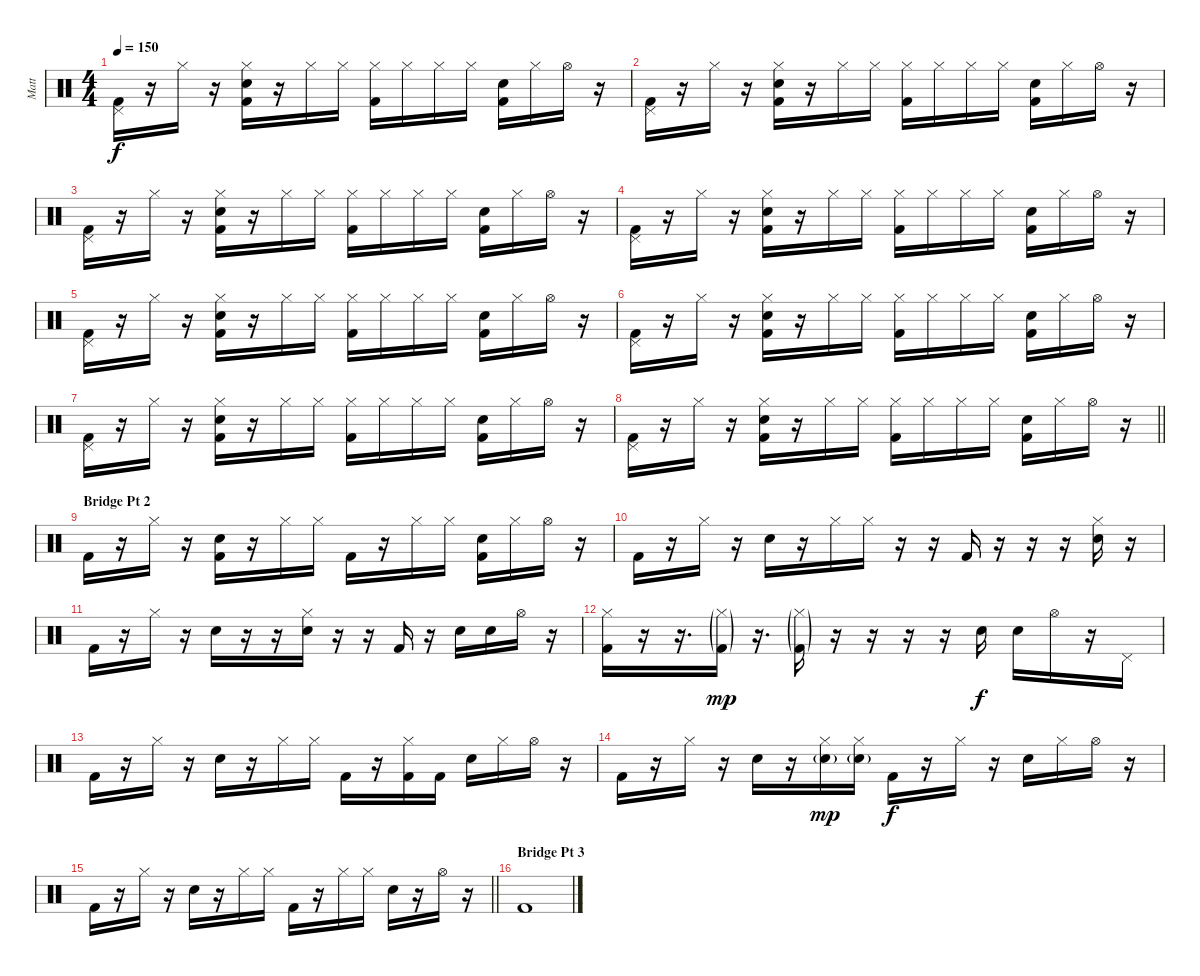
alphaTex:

\track ("Matt" "Matt") {instrument percussion}
\staff {score}
\articulation defaults
\ts (4 4)
\tempo 150
\clef neutral
\ks c
("Pedal Hi-Hat (hit)" "Kick (hit) 2").16{dy f} r.16 "Hi-Hat (closed)".16 r.16 ("Hi-Hat (closed)" "Snare (hit) 2" "Kick (hit) 2").16 r.16 "Hi-Hat (closed)".16 "Hi-Hat (closed)".16 ("Hi-Hat (closed)" "Kick (hit) 2").16 "Hi-Hat (closed)".16 "Hi-Hat (closed)".16 "Hi-Hat (closed)".16 ("Snare (hit) 2" "Kick (hit) 2").16 "Hi-Hat (closed)".16 "Hi-Hat (open)".16 r.16 |
("Pedal Hi-Hat (hit)" "Kick (hit) 2").16 r.16 "Hi-Hat (closed)".16 r.16 ("Hi-Hat (closed)" "Snare (hit) 2" "Kick (hit) 2").16 r.16 "Hi-Hat (closed)".16 "Hi-Hat (closed)".16 ("Hi-Hat (closed)" "Kick (hit) 2").16 "Hi-Hat (closed)".16 "Hi-Hat (closed)".16 "Hi-Hat (closed)".16 ("Snare (hit) 2" "Kick (hit) 2").16 "Hi-Hat (closed)".16 "Hi-Hat (open)".16 r.16 |
("Pedal Hi-Hat (hit)" "Kick (hit) 2").16 r.16 "Hi-Hat (closed)".16 r.16 ("Hi-Hat (closed)" "Snare (hit) 2" "Kick (hit) 2").16 r.16 "Hi-Hat (closed)".16 "Hi-Hat (closed)".16 ("Hi-Hat (closed)" "Kick (hit) 2").16 "Hi-Hat (closed)".16 "Hi-Hat (closed)".16 "Hi-Hat (closed)".16 ("Snare (hit) 2" "Kick (hit) 2").16 "Hi-Hat (closed)".16 "Hi-Hat (open)".16 r.16 |
("Pedal Hi-Hat (hit)" "Kick (hit) 2").16 r.16 "Hi-Hat (closed)".16 r.16 ("Hi-Hat (closed)" "Snare (hit) 2" "Kick (hit) 2").16 r.16 "Hi-Hat (closed)".16 "Hi-Hat (closed)".16 ("Hi-Hat (closed)" "Kick (hit) 2").16 "Hi-Hat (closed)".16 "Hi-Hat (closed)".16 "Hi-Hat (closed)".16 ("Snare (hit) 2" "Kick (hit) 2").16 "Hi-Hat (closed)".16 "Hi-Hat (open)".16 r.16 |
("Pedal Hi-Hat (hit)" "Kick (hit) 2").16 r.16 "Hi-Hat (closed)".16 r.16 ("Hi-Hat (closed)" "Snare (hit) 2" "Kick (hit) 2").16 r.16 "Hi-Hat (closed)".16 "Hi-Hat (closed)".16 ("Hi-Hat (closed)" "Kick (hit) 2").16 "Hi-Hat (closed)".16 "Hi-Hat (closed)".16 "Hi-Hat (closed)".16 ("Snare (hit) 2" "Kick (hit) 2").16 "Hi-Hat (closed)".16 "Hi-Hat (open)".16 r.16 |
("Pedal Hi-Hat (hit)" "Kick (hit) 2").16 r.16 "Hi-Hat (closed)".16 r.16 ("Hi-Hat (closed)" "Snare (hit) 2" "Kick (hit) 2").16 r.16 "Hi-Hat (closed)".16 "Hi-Hat (closed)".16 ("Hi-Hat (closed)" "Kick (hit) 2").16 "Hi-Hat (closed)".16 "Hi-Hat (closed)".16 "Hi-Hat (closed)".16 ("Snare (hit) 2" "Kick (hit) 2").16 "Hi-Hat (closed)".16 "Hi-Hat (open)".16 r.16 |
("Pedal Hi-Hat (hit)" "Kick (hit) 2").16 r.16 "Hi-Hat (closed)".16 r.16 ("Hi-Hat (closed)" "Snare (hit) 2" "Kick (hit) 2").16 r.16 "Hi-Hat (closed)".16 "Hi-Hat (closed)".16 ("Hi-Hat (closed)" "Kick (hit) 2").16 "Hi-Hat (closed)".16 "Hi-Hat (closed)".16 "Hi-Hat (closed)".16 ("Snare (hit) 2" "Kick (hit) 2").16 "Hi-Hat (closed)".16 "Hi-Hat (open)".16 r.16 |
\barLineRight lightlight
("Pedal Hi-Hat (hit)" "Kick (hit) 2").16 r.16 "Hi-Hat (closed)".16 r.16 ("Hi-Hat (closed)" "Snare (hit) 2" "Kick (hit) 2").16 r.16 "Hi-Hat (closed)".16 "Hi-Hat (closed)".16 ("Hi-Hat (closed)" "Kick (hit) 2").16 "Hi-Hat (closed)".16 "Hi-Hat (closed)".16 "Hi-Hat (closed)".16 ("Snare (hit) 2" "Kick (hit) 2").16 "Hi-Hat (closed)".16 "Hi-Hat (open)".16 r.16 |
\section ("" "Bridge Pt 2")
"Kick (hit) 2".16 r.16 "Hi-Hat (closed)".16 r.16 ("Snare (hit) 2" "Kick (hit) 2").16 r.16 "Hi-Hat (closed)".16 "Hi-Hat (closed)".16 "Kick (hit) 2".16 r.16 "Hi-Hat (closed)".16 "Hi-Hat (closed)".16 ("Snare (hit) 2" "Kick (hit) 2").16 "Hi-Hat (closed)".16 "Hi-Hat (open)".16 r.16 |
"Kick (hit) 2".16 r.16 "Hi-Hat (closed)".16 r.16 "Snare (hit) 2".16 r.16 "Hi-Hat (closed)".16 "Hi-Hat (closed)".16 r.16 r.16 "Kick (hit) 2".16 r.16 r.16 r.16 ("Hi-Hat (closed)" "Snare (hit) 2").16 r.16 |
"Kick (hit) 2".16 r.16 "Hi-Hat (closed)".16 r.16 "Snare (hit) 2".16 r.16 r.16 ("Hi-Hat (closed)" "Snare (hit) 2").16 r.16 r.16 "Kick (hit) 2".16 r.16 "Snare (hit) 2".16 "Snare (hit) 2".16 "Hi-Hat (open)".16 r.16 |
("Hi-Hat (closed)" "Kick (hit) 2").16 r.16 r.16{d} ("Hi-Hat (closed)"{g} "Kick (hit) 2"{g}).16{dy mp} r.16{d} ("Hi-Hat (closed)"{g} "Kick (hit) 2"{g}).16 r.16 r.16 r.16 r.16 "Snare (hit) 2".16{dy f} "Snare (hit) 2".16 "Hi-Hat (open)".16 r.16 "Pedal Hi-Hat (hit)".16 |
"Kick (hit) 2".16 r.16 "Hi-Hat (closed)".16 r.16 "Snare (hit) 2".16 r.16 "Hi-Hat (closed)".16 "Hi-Hat (closed)".16 "Kick (hit) 2".16 r.16 ("Hi-Hat (closed)" "Kick (hit) 2").16 "Kick (hit) 2".16 "Snare (hit) 2".16 "Hi-Hat (closed)".16 "Hi-Hat (open)".16 r.16 |
"Kick (hit) 2".16 r.16 "Hi-Hat (closed)".16 r.16 "Snare (hit) 2".16 r.16 ("Hi-Hat (closed)" "Snare (hit) 2"{g}).16{dy mp} ("Hi-Hat (closed)" "Snare (hit) 2"{g}).16 "Kick (hit) 2".16{dy f} r.16 "Hi-Hat (closed)".16 r.16 "Snare (hit) 2".16 "Hi-Hat (closed)".16 "Hi-Hat (open)".16 r.16 |
\barLineRight lightlight "Kick (hit) 2".16
r.16 "Hi-Hat (closed)".16 r.16 "Snare (hit) 2".16 r.16 "Hi-Hat (closed)".16 "Hi-Hat (closed)".16 "Kick (hit) 2".16 r.16 "Hi-Hat (closed)".16 "Hi-Hat (closed)".16 "Snare (hit) 2".16 r.16 "Hi-Hat (open)".16 r.16 |
\section ("" "Bridge Pt 3")
"Kick (hit) 2".1
